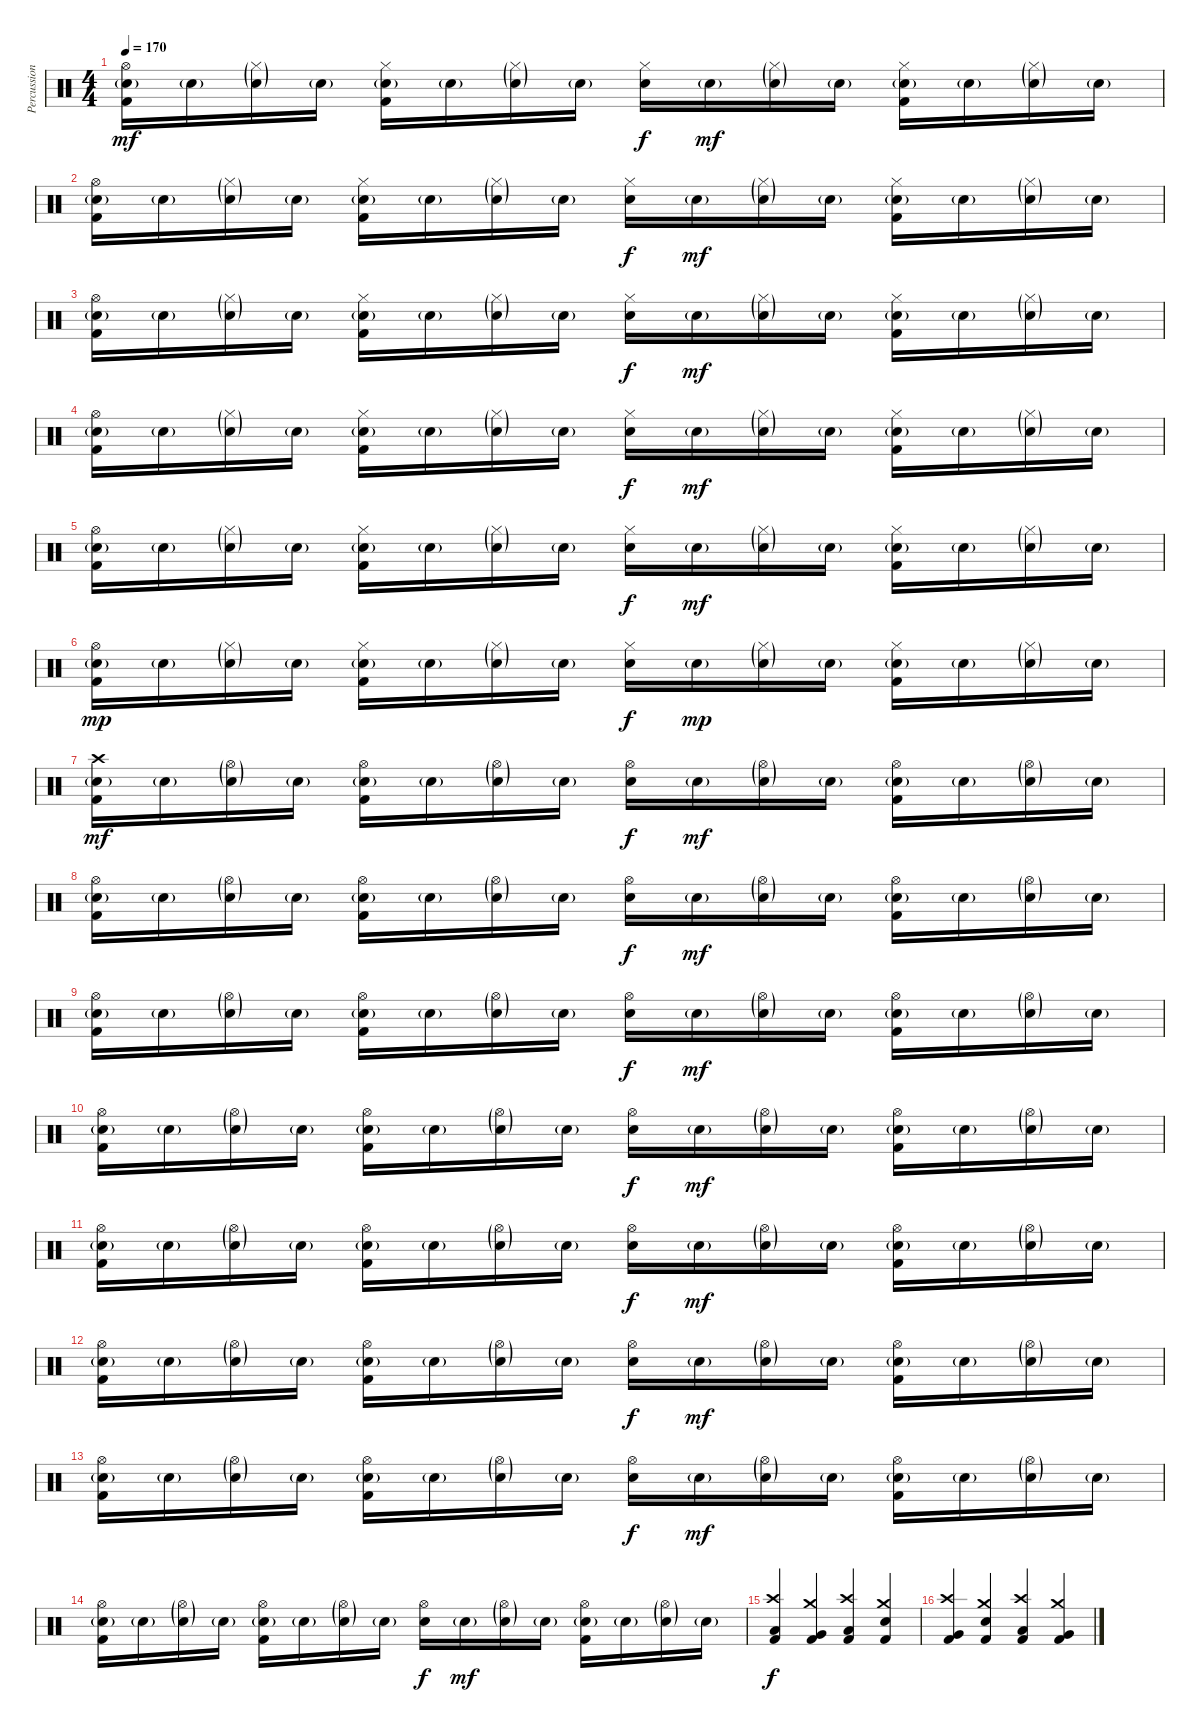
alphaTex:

\track ("Percussion" "Percussion") {instrument percussion}
\staff {score}
\articulation defaults
\ts (4 4)
\tempo 170
\clef neutral
\ks c
("Hi-Hat (open)" "Kick (hit) 2" "Electric Snare (hit)"{g}).16{dy mf} "Electric Snare (hit)"{g}.16 ("Hi-Hat (closed)"{g} "Electric Snare (hit)"{g}).16 "Electric Snare (hit)"{g}.16 ("Hi-Hat (closed)" "Kick (hit) 2" "Electric Snare (hit)"{g}).16 "Electric Snare (hit)"{g}.16 ("Hi-Hat (closed)"{g} "Electric Snare (hit)"{g}).16 "Electric Snare (hit)"{g}.16 ("Hi-Hat (closed)" "Electric Snare (hit)").16{dy f} "Electric Snare (hit)"{g}.16{dy mf} ("Hi-Hat (closed)"{g} "Electric Snare (hit)"{g}).16 "Electric Snare (hit)"{g}.16 ("Hi-Hat (closed)" "Kick (hit) 2" "Electric Snare (hit)"{g}).16 "Electric Snare (hit)"{g}.16 ("Hi-Hat (closed)"{g} "Electric Snare (hit)"{g}).16 "Electric Snare (hit)"{g}.16 |
("Hi-Hat (open)" "Kick (hit) 2" "Electric Snare (hit)"{g}).16 "Electric Snare (hit)"{g}.16 ("Hi-Hat (closed)"{g} "Electric Snare (hit)"{g}).16 "Electric Snare (hit)"{g}.16 ("Hi-Hat (closed)" "Kick (hit) 2" "Electric Snare (hit)"{g}).16 "Electric Snare (hit)"{g}.16 ("Hi-Hat (closed)"{g} "Electric Snare (hit)"{g}).16 "Electric Snare (hit)"{g}.16 ("Hi-Hat (closed)" "Electric Snare (hit)").16{dy f} "Electric Snare (hit)"{g}.16{dy mf} ("Hi-Hat (closed)"{g} "Electric Snare (hit)"{g}).16 "Electric Snare (hit)"{g}.16 ("Hi-Hat (closed)" "Kick (hit) 2" "Electric Snare (hit)"{g}).16 "Electric Snare (hit)"{g}.16 ("Hi-Hat (closed)"{g} "Electric Snare (hit)"{g}).16 "Electric Snare (hit)"{g}.16 |
("Hi-Hat (open)" "Kick (hit) 2" "Electric Snare (hit)"{g}).16 "Electric Snare (hit)"{g}.16 ("Hi-Hat (closed)"{g} "Electric Snare (hit)"{g}).16 "Electric Snare (hit)"{g}.16 ("Hi-Hat (closed)" "Kick (hit) 2" "Electric Snare (hit)"{g}).16 "Electric Snare (hit)"{g}.16 ("Hi-Hat (closed)"{g} "Electric Snare (hit)"{g}).16 "Electric Snare (hit)"{g}.16 ("Hi-Hat (closed)" "Electric Snare (hit)").16{dy f} "Electric Snare (hit)"{g}.16{dy mf} ("Hi-Hat (closed)"{g} "Electric Snare (hit)"{g}).16 "Electric Snare (hit)"{g}.16 ("Hi-Hat (closed)" "Kick (hit) 2" "Electric Snare (hit)"{g}).16 "Electric Snare (hit)"{g}.16 ("Hi-Hat (closed)"{g} "Electric Snare (hit)"{g}).16 "Electric Snare (hit)"{g}.16 |
("Hi-Hat (open)" "Kick (hit) 2" "Electric Snare (hit)"{g}).16 "Electric Snare (hit)"{g}.16 ("Hi-Hat (closed)"{g} "Electric Snare (hit)"{g}).16 "Electric Snare (hit)"{g}.16 ("Hi-Hat (closed)" "Kick (hit) 2" "Electric Snare (hit)"{g}).16 "Electric Snare (hit)"{g}.16 ("Hi-Hat (closed)"{g} "Electric Snare (hit)"{g}).16 "Electric Snare (hit)"{g}.16 ("Hi-Hat (closed)" "Electric Snare (hit)").16{dy f} "Electric Snare (hit)"{g}.16{dy mf} ("Hi-Hat (closed)"{g} "Electric Snare (hit)"{g}).16 "Electric Snare (hit)"{g}.16 ("Hi-Hat (closed)" "Kick (hit) 2" "Electric Snare (hit)"{g}).16 "Electric Snare (hit)"{g}.16 ("Hi-Hat (closed)"{g} "Electric Snare (hit)"{g}).16 "Electric Snare (hit)"{g}.16 |
("Hi-Hat (open)" "Kick (hit) 2" "Electric Snare (hit)"{g}).16 "Electric Snare (hit)"{g}.16 ("Hi-Hat (closed)"{g} "Electric Snare (hit)"{g}).16 "Electric Snare (hit)"{g}.16 ("Hi-Hat (closed)" "Kick (hit) 2" "Electric Snare (hit)"{g}).16 "Electric Snare (hit)"{g}.16 ("Hi-Hat (closed)"{g} "Electric Snare (hit)"{g}).16 "Electric Snare (hit)"{g}.16 ("Hi-Hat (closed)" "Electric Snare (hit)").16{dy f} "Electric Snare (hit)"{g}.16{dy mf} ("Hi-Hat (closed)"{g} "Electric Snare (hit)"{g}).16 "Electric Snare (hit)"{g}.16 ("Hi-Hat (closed)" "Kick (hit) 2" "Electric Snare (hit)"{g}).16 "Electric Snare (hit)"{g}.16 ("Hi-Hat (closed)"{g} "Electric Snare (hit)"{g}).16 "Electric Snare (hit)"{g}.16 |
("Hi-Hat (open)" "Kick (hit) 2" "Electric Snare (hit)"{g}).16{dy mp} "Electric Snare (hit)"{g}.16 ("Hi-Hat (closed)"{g} "Electric Snare (hit)"{g}).16 "Electric Snare (hit)"{g}.16 ("Hi-Hat (closed)" "Kick (hit) 2" "Electric Snare (hit)"{g}).16 "Electric Snare (hit)"{g}.16 ("Hi-Hat (closed)"{g} "Electric Snare (hit)"{g}).16 "Electric Snare (hit)"{g}.16 ("Hi-Hat (closed)" "Electric Snare (hit)").16{dy f} "Electric Snare (hit)"{g}.16{dy mp} ("Hi-Hat (closed)"{g} "Electric Snare (hit)"{g}).16 "Electric Snare (hit)"{g}.16 ("Hi-Hat (closed)" "Kick (hit) 2" "Electric Snare (hit)"{g}).16 "Electric Snare (hit)"{g}.16 ("Hi-Hat (closed)"{g} "Electric Snare (hit)"{g}).16 "Electric Snare (hit)"{g}.16 |
("Crash high (hit)" "Kick (hit) 2" "Electric Snare (hit)"{g}).16{dy mf} "Electric Snare (hit)"{g}.16 ("Hi-Hat (open)"{g} "Electric Snare (hit)"{g}).16 "Electric Snare (hit)"{g}.16 ("Hi-Hat (open)" "Kick (hit) 2" "Electric Snare (hit)"{g}).16 "Electric Snare (hit)"{g}.16 ("Hi-Hat (open)"{g} "Electric Snare (hit)"{g}).16 "Electric Snare (hit)"{g}.16 ("Hi-Hat (open)" "Electric Snare (hit)").16{dy f} "Electric Snare (hit)"{g}.16{dy mf} ("Hi-Hat (open)"{g} "Electric Snare (hit)"{g}).16 "Electric Snare (hit)"{g}.16 ("Hi-Hat (open)" "Kick (hit) 2" "Electric Snare (hit)"{g}).16 "Electric Snare (hit)"{g}.16 ("Hi-Hat (open)"{g} "Electric Snare (hit)"{g}).16 "Electric Snare (hit)"{g}.16 |
("Hi-Hat (open)" "Kick (hit) 2" "Electric Snare (hit)"{g}).16 "Electric Snare (hit)"{g}.16 ("Hi-Hat (open)"{g} "Electric Snare (hit)"{g}).16 "Electric Snare (hit)"{g}.16 ("Hi-Hat (open)" "Kick (hit) 2" "Electric Snare (hit)"{g}).16 "Electric Snare (hit)"{g}.16 ("Hi-Hat (open)"{g} "Electric Snare (hit)"{g}).16 "Electric Snare (hit)"{g}.16 ("Hi-Hat (open)" "Electric Snare (hit)").16{dy f} "Electric Snare (hit)"{g}.16{dy mf} ("Hi-Hat (open)"{g} "Electric Snare (hit)"{g}).16 "Electric Snare (hit)"{g}.16 ("Hi-Hat (open)" "Kick (hit) 2" "Electric Snare (hit)"{g}).16 "Electric Snare (hit)"{g}.16 ("Hi-Hat (open)"{g} "Electric Snare (hit)"{g}).16 "Electric Snare (hit)"{g}.16 |
("Hi-Hat (open)" "Kick (hit) 2" "Electric Snare (hit)"{g}).16 "Electric Snare (hit)"{g}.16 ("Hi-Hat (open)"{g} "Electric Snare (hit)"{g}).16 "Electric Snare (hit)"{g}.16 ("Hi-Hat (open)" "Kick (hit) 2" "Electric Snare (hit)"{g}).16 "Electric Snare (hit)"{g}.16 ("Hi-Hat (open)"{g} "Electric Snare (hit)"{g}).16 "Electric Snare (hit)"{g}.16 ("Hi-Hat (open)" "Electric Snare (hit)").16{dy f} "Electric Snare (hit)"{g}.16{dy mf} ("Hi-Hat (open)"{g} "Electric Snare (hit)"{g}).16 "Electric Snare (hit)"{g}.16 ("Hi-Hat (open)" "Kick (hit) 2" "Electric Snare (hit)"{g}).16 "Electric Snare (hit)"{g}.16 ("Hi-Hat (open)"{g} "Electric Snare (hit)"{g}).16 "Electric Snare (hit)"{g}.16 |
("Hi-Hat (open)" "Kick (hit) 2" "Electric Snare (hit)"{g}).16 "Electric Snare (hit)"{g}.16 ("Hi-Hat (open)"{g} "Electric Snare (hit)"{g}).16 "Electric Snare (hit)"{g}.16 ("Hi-Hat (open)" "Kick (hit) 2" "Electric Snare (hit)"{g}).16 "Electric Snare (hit)"{g}.16 ("Hi-Hat (open)"{g} "Electric Snare (hit)"{g}).16 "Electric Snare (hit)"{g}.16 ("Hi-Hat (open)" "Electric Snare (hit)").16{dy f} "Electric Snare (hit)"{g}.16{dy mf} ("Hi-Hat (open)"{g} "Electric Snare (hit)"{g}).16 "Electric Snare (hit)"{g}.16 ("Hi-Hat (open)" "Kick (hit) 2" "Electric Snare (hit)"{g}).16 "Electric Snare (hit)"{g}.16 ("Hi-Hat (open)"{g} "Electric Snare (hit)"{g}).16 "Electric Snare (hit)"{g}.16 |
("Hi-Hat (open)" "Kick (hit) 2" "Electric Snare (hit)"{g}).16 "Electric Snare (hit)"{g}.16 ("Hi-Hat (open)"{g} "Electric Snare (hit)"{g}).16 "Electric Snare (hit)"{g}.16 ("Hi-Hat (open)" "Kick (hit) 2" "Electric Snare (hit)"{g}).16 "Electric Snare (hit)"{g}.16 ("Hi-Hat (open)"{g} "Electric Snare (hit)"{g}).16 "Electric Snare (hit)"{g}.16 ("Hi-Hat (open)" "Electric Snare (hit)").16{dy f} "Electric Snare (hit)"{g}.16{dy mf} ("Hi-Hat (open)"{g} "Electric Snare (hit)"{g}).16 "Electric Snare (hit)"{g}.16 ("Hi-Hat (open)" "Kick (hit) 2" "Electric Snare (hit)"{g}).16 "Electric Snare (hit)"{g}.16 ("Hi-Hat (open)"{g} "Electric Snare (hit)"{g}).16 "Electric Snare (hit)"{g}.16 |
("Hi-Hat (open)" "Kick (hit) 2" "Electric Snare (hit)"{g}).16 "Electric Snare (hit)"{g}.16 ("Hi-Hat (open)"{g} "Electric Snare (hit)"{g}).16 "Electric Snare (hit)"{g}.16 ("Hi-Hat (open)" "Kick (hit) 2" "Electric Snare (hit)"{g}).16 "Electric Snare (hit)"{g}.16 ("Hi-Hat (open)"{g} "Electric Snare (hit)"{g}).16 "Electric Snare (hit)"{g}.16 ("Hi-Hat (open)" "Electric Snare (hit)").16{dy f} "Electric Snare (hit)"{g}.16{dy mf} ("Hi-Hat (open)"{g} "Electric Snare (hit)"{g}).16 "Electric Snare (hit)"{g}.16 ("Hi-Hat (open)" "Kick (hit) 2" "Electric Snare (hit)"{g}).16 "Electric Snare (hit)"{g}.16 ("Hi-Hat (open)"{g} "Electric Snare (hit)"{g}).16 "Electric Snare (hit)"{g}.16 |
("Hi-Hat (open)" "Kick (hit) 2" "Electric Snare (hit)"{g}).16 "Electric Snare (hit)"{g}.16 ("Hi-Hat (open)"{g} "Electric Snare (hit)"{g}).16 "Electric Snare (hit)"{g}.16 ("Hi-Hat (open)" "Kick (hit) 2" "Electric Snare (hit)"{g}).16 "Electric Snare (hit)"{g}.16 ("Hi-Hat (open)"{g} "Electric Snare (hit)"{g}).16 "Electric Snare (hit)"{g}.16 ("Hi-Hat (open)" "Electric Snare (hit)").16{dy f} "Electric Snare (hit)"{g}.16{dy mf} ("Hi-Hat (open)"{g} "Electric Snare (hit)"{g}).16 "Electric Snare (hit)"{g}.16 ("Hi-Hat (open)" "Kick (hit) 2" "Electric Snare (hit)"{g}).16 "Electric Snare (hit)"{g}.16 ("Hi-Hat (open)"{g} "Electric Snare (hit)"{g}).16 "Electric Snare (hit)"{g}.16 |
("Hi-Hat (open)" "Kick (hit) 2" "Electric Snare (hit)"{g}).16 "Electric Snare (hit)"{g}.16 ("Hi-Hat (open)"{g} "Electric Snare (hit)"{g}).16 "Electric Snare (hit)"{g}.16 ("Hi-Hat (open)" "Kick (hit) 2" "Electric Snare (hit)"{g}).16 "Electric Snare (hit)"{g}.16 ("Hi-Hat (open)"{g} "Electric Snare (hit)"{g}).16 "Electric Snare (hit)"{g}.16 ("Hi-Hat (open)" "Electric Snare (hit)").16{dy f} "Electric Snare (hit)"{g}.16{dy mf} ("Hi-Hat (open)"{g} "Electric Snare (hit)"{g}).16 "Electric Snare (hit)"{g}.16 ("Hi-Hat (open)" "Kick (hit) 2" "Electric Snare (hit)"{g}).16 "Electric Snare (hit)"{g}.16 ("Hi-Hat (open)"{g} "Electric Snare (hit)"{g}).16 "Electric Snare (hit)"{g}.16 |
("Crash high (hit)" "Kick (hit) 2" "Low Floor Tom (hit)").4{dy f} ("Crash medium (hit)" "Kick (hit) 2" "Very Low Tom (hit)").4 ("Crash high (hit)" "Kick (hit) 2" "Low Floor Tom (hit)").4 ("Crash medium (hit)" "Kick (hit) 2" "Metronome (bell)").4 |
("Crash high (hit)" "Kick (hit) 2" "Very Low Tom (hit)").4 ("Crash medium (hit)" "Kick (hit) 2" "Metronome (bell)").4 ("Crash high (hit)" "Kick (hit) 2" "Low Floor Tom (hit)").4 ("Crash medium (hit)" "Kick (hit) 2" "Very Low Tom (hit)").4
